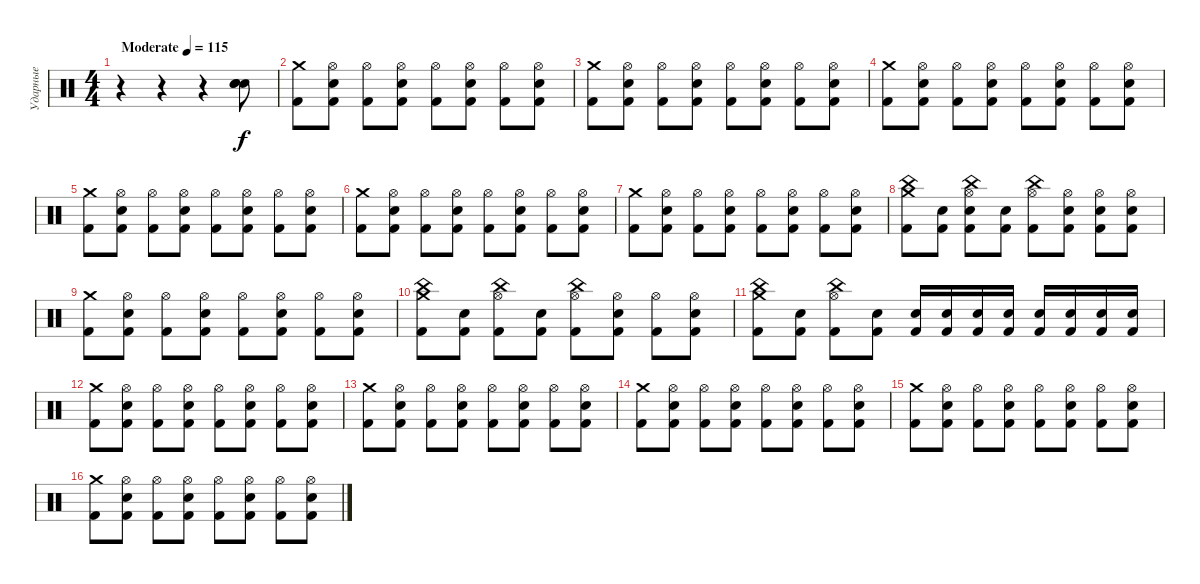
\track ("Ударные" "Ударные") {instrument percussion}
\staff {score}
\articulation defaults
\ts (4 4)
\tempo (115 "Moderate")
\clef neutral
\ks c
r.4{dy f} r.4 r.4 ("Snare (hit) 2" "Snare (hit) 2" "Snare (hit) 2").8 |
("Kick (hit) 2" "Crash medium (hit)").8 ("Kick (hit) 2" "Snare (hit) 2" "Hi-Hat (open)").8 ("Kick (hit) 2" "Hi-Hat (open)").8 ("Kick (hit) 2" "Snare (hit) 2" "Hi-Hat (open)").8 ("Kick (hit) 2" "Hi-Hat (open)").8 ("Kick (hit) 2" "Snare (hit) 2" "Hi-Hat (open)").8 ("Kick (hit) 2" "Hi-Hat (open)").8 ("Kick (hit) 2" "Snare (hit) 2" "Hi-Hat (open)").8 |
("Kick (hit) 2" "Crash medium (hit)").8 ("Kick (hit) 2" "Snare (hit) 2" "Hi-Hat (open)").8 ("Kick (hit) 2" "Hi-Hat (open)").8 ("Kick (hit) 2" "Snare (hit) 2" "Hi-Hat (open)").8 ("Kick (hit) 2" "Hi-Hat (open)").8 ("Kick (hit) 2" "Snare (hit) 2" "Hi-Hat (open)").8 ("Kick (hit) 2" "Hi-Hat (open)").8 ("Kick (hit) 2" "Snare (hit) 2" "Hi-Hat (open)").8 |
("Kick (hit) 2" "Crash medium (hit)").8 ("Kick (hit) 2" "Snare (hit) 2" "Hi-Hat (open)").8 ("Kick (hit) 2" "Hi-Hat (open)").8 ("Kick (hit) 2" "Snare (hit) 2" "Hi-Hat (open)").8 ("Kick (hit) 2" "Hi-Hat (open)").8 ("Kick (hit) 2" "Snare (hit) 2" "Hi-Hat (open)").8 ("Kick (hit) 2" "Hi-Hat (open)").8 ("Kick (hit) 2" "Snare (hit) 2" "Hi-Hat (open)").8 |
("Kick (hit) 2" "Crash medium (hit)").8 ("Kick (hit) 2" "Snare (hit) 2" "Hi-Hat (open)").8 ("Kick (hit) 2" "Hi-Hat (open)").8 ("Kick (hit) 2" "Snare (hit) 2" "Hi-Hat (open)").8 ("Kick (hit) 2" "Hi-Hat (open)").8 ("Kick (hit) 2" "Snare (hit) 2" "Hi-Hat (open)").8 ("Kick (hit) 2" "Hi-Hat (open)").8 ("Kick (hit) 2" "Snare (hit) 2" "Hi-Hat (open)").8 |
("Kick (hit) 2" "Crash medium (hit)").8 ("Kick (hit) 2" "Snare (hit) 2" "Hi-Hat (open)").8 ("Kick (hit) 2" "Hi-Hat (open)").8 ("Kick (hit) 2" "Snare (hit) 2" "Hi-Hat (open)").8 ("Kick (hit) 2" "Hi-Hat (open)").8 ("Kick (hit) 2" "Snare (hit) 2" "Hi-Hat (open)").8 ("Kick (hit) 2" "Hi-Hat (open)").8 ("Kick (hit) 2" "Snare (hit) 2" "Hi-Hat (open)").8 |
("Kick (hit) 2" "Crash medium (hit)").8 ("Kick (hit) 2" "Snare (hit) 2" "Hi-Hat (open)").8 ("Kick (hit) 2" "Hi-Hat (open)").8 ("Kick (hit) 2" "Snare (hit) 2" "Hi-Hat (open)").8 ("Kick (hit) 2" "Hi-Hat (open)").8 ("Kick (hit) 2" "Snare (hit) 2" "Hi-Hat (open)").8 ("Kick (hit) 2" "Hi-Hat (open)").8 ("Kick (hit) 2" "Snare (hit) 2" "Hi-Hat (open)").8 |
("Kick (hit) 2" "Crash medium (hit)" "China (hit)").8 ("Kick (hit) 2" "Snare (hit) 2").8 ("Kick (hit) 2" "Snare (hit) 2" "Hi-Hat (open)" "China (hit)").8 ("Kick (hit) 2" "Snare (hit) 2").8 ("Kick (hit) 2" "Hi-Hat (open)" "China (hit)").8 ("Kick (hit) 2" "Snare (hit) 2" "Hi-Hat (open)").8 ("Kick (hit) 2" "Snare (hit) 2" "Hi-Hat (open)").8 ("Kick (hit) 2" "Snare (hit) 2" "Hi-Hat (open)").8 |
("Kick (hit) 2" "Crash medium (hit)").8 ("Kick (hit) 2" "Snare (hit) 2" "Hi-Hat (open)").8 ("Kick (hit) 2" "Hi-Hat (open)").8 ("Kick (hit) 2" "Snare (hit) 2" "Hi-Hat (open)").8 ("Kick (hit) 2" "Hi-Hat (open)").8 ("Kick (hit) 2" "Snare (hit) 2" "Hi-Hat (open)").8 ("Kick (hit) 2" "Hi-Hat (open)").8 ("Kick (hit) 2" "Snare (hit) 2" "Hi-Hat (open)").8 |
("Kick (hit) 2" "Crash medium (hit)" "China (hit)").8 ("Kick (hit) 2" "Snare (hit) 2").8 ("Kick (hit) 2" "Hi-Hat (open)" "China (hit)").8 ("Kick (hit) 2" "Snare (hit) 2").8 ("Kick (hit) 2" "Hi-Hat (open)" "China (hit)").8 ("Kick (hit) 2" "Snare (hit) 2" "Hi-Hat (open)").8 ("Kick (hit) 2" "Hi-Hat (open)").8 ("Kick (hit) 2" "Snare (hit) 2" "Hi-Hat (open)").8 |
("Kick (hit) 2" "Crash medium (hit)" "China (hit)").8 ("Kick (hit) 2" "Snare (hit) 2").8 ("Kick (hit) 2" "Hi-Hat (open)" "China (hit)").8 ("Kick (hit) 2" "Snare (hit) 2").8 ("Kick (hit) 2" "Snare (hit) 2").16 ("Kick (hit) 2" "Snare (hit) 2").16 ("Kick (hit) 2" "Snare (hit) 2").16 ("Kick (hit) 2" "Snare (hit) 2").16 ("Kick (hit) 2" "Snare (hit) 2").16 ("Kick (hit) 2" "Snare (hit) 2").16 ("Kick (hit) 2" "Snare (hit) 2").16 ("Kick (hit) 2" "Snare (hit) 2").16 |
("Kick (hit) 2" "Crash medium (hit)").8 ("Kick (hit) 2" "Snare (hit) 2" "Hi-Hat (open)").8 ("Kick (hit) 2" "Hi-Hat (open)").8 ("Kick (hit) 2" "Snare (hit) 2" "Hi-Hat (open)").8 ("Kick (hit) 2" "Hi-Hat (open)").8 ("Kick (hit) 2" "Snare (hit) 2" "Hi-Hat (open)").8 ("Kick (hit) 2" "Hi-Hat (open)").8 ("Kick (hit) 2" "Snare (hit) 2" "Hi-Hat (open)").8 |
("Kick (hit) 2" "Crash medium (hit)").8 ("Kick (hit) 2" "Snare (hit) 2" "Hi-Hat (open)").8 ("Kick (hit) 2" "Hi-Hat (open)").8 ("Kick (hit) 2" "Snare (hit) 2" "Hi-Hat (open)").8 ("Kick (hit) 2" "Hi-Hat (open)").8 ("Kick (hit) 2" "Snare (hit) 2" "Hi-Hat (open)").8 ("Kick (hit) 2" "Hi-Hat (open)").8 ("Kick (hit) 2" "Snare (hit) 2" "Hi-Hat (open)").8 |
("Kick (hit) 2" "Crash medium (hit)").8 ("Kick (hit) 2" "Snare (hit) 2" "Hi-Hat (open)").8 ("Kick (hit) 2" "Hi-Hat (open)").8 ("Kick (hit) 2" "Snare (hit) 2" "Hi-Hat (open)").8 ("Kick (hit) 2" "Hi-Hat (open)").8 ("Kick (hit) 2" "Snare (hit) 2" "Hi-Hat (open)").8 ("Kick (hit) 2" "Hi-Hat (open)").8 ("Kick (hit) 2" "Snare (hit) 2" "Hi-Hat (open)").8 |
("Kick (hit) 2" "Crash medium (hit)").8 ("Kick (hit) 2" "Snare (hit) 2" "Hi-Hat (open)").8 ("Kick (hit) 2" "Hi-Hat (open)").8 ("Kick (hit) 2" "Snare (hit) 2" "Hi-Hat (open)").8 ("Kick (hit) 2" "Hi-Hat (open)").8 ("Kick (hit) 2" "Snare (hit) 2" "Hi-Hat (open)").8 ("Kick (hit) 2" "Hi-Hat (open)").8 ("Kick (hit) 2" "Snare (hit) 2" "Hi-Hat (open)").8 |
("Kick (hit) 2" "Crash medium (hit)").8 ("Kick (hit) 2" "Snare (hit) 2" "Hi-Hat (open)").8 ("Kick (hit) 2" "Hi-Hat (open)").8 ("Kick (hit) 2" "Snare (hit) 2" "Hi-Hat (open)").8 ("Kick (hit) 2" "Hi-Hat (open)").8 ("Kick (hit) 2" "Snare (hit) 2" "Hi-Hat (open)").8 ("Kick (hit) 2" "Hi-Hat (open)").8 ("Kick (hit) 2" "Snare (hit) 2" "Hi-Hat (open)").8
